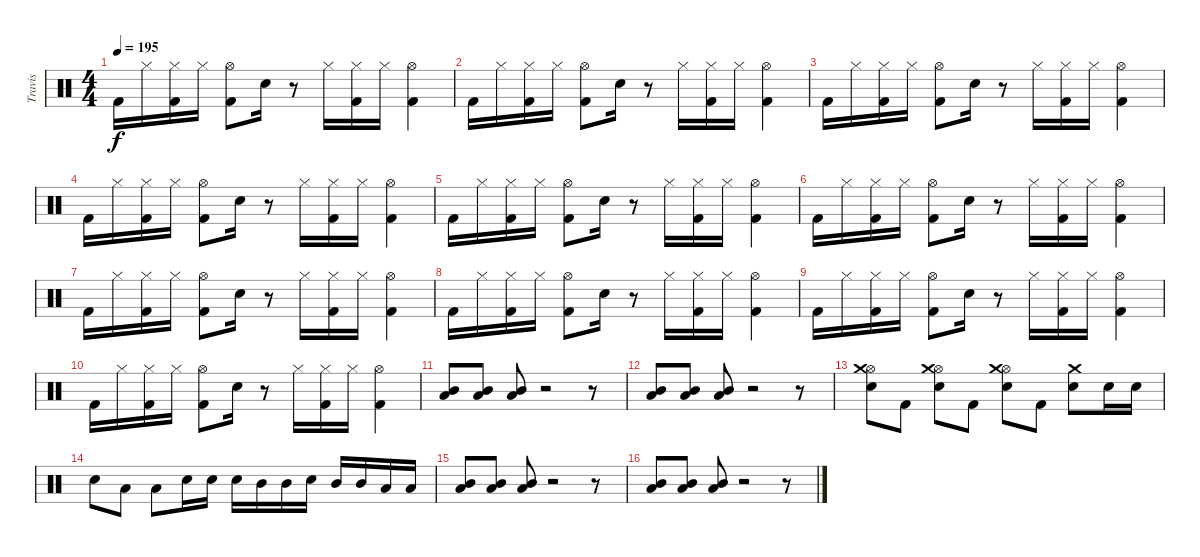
\track ("Travis" "Travis") {instrument percussion}
\staff {score}
\articulation defaults
\ts (4 4)
\tempo 195
\clef neutral
\ks c "Kick (hit) 2".16{dy f} "Hi-Hat (closed)".16
("Kick (hit) 2" "Hi-Hat (closed)").16 "Hi-Hat (closed)".16 ("Kick (hit) 2" "Hi-Hat (open)").8 "Electric Snare (hit)".16 r.8 "Hi-Hat (closed)".16 ("Kick (hit) 2" "Hi-Hat (closed)").16 "Hi-Hat (closed)".16 ("Kick (hit) 2" "Hi-Hat (open)").4 |
"Kick (hit) 2".16 "Hi-Hat (closed)".16 ("Kick (hit) 2" "Hi-Hat (closed)").16 "Hi-Hat (closed)".16 ("Kick (hit) 2" "Hi-Hat (open)").8 "Electric Snare (hit)".16 r.8 "Hi-Hat (closed)".16 ("Kick (hit) 2" "Hi-Hat (closed)").16 "Hi-Hat (closed)".16 ("Kick (hit) 2" "Hi-Hat (open)").4 |
"Kick (hit) 2".16 "Hi-Hat (closed)".16 ("Kick (hit) 2" "Hi-Hat (closed)").16 "Hi-Hat (closed)".16 ("Kick (hit) 2" "Hi-Hat (open)").8 "Electric Snare (hit)".16 r.8 "Hi-Hat (closed)".16 ("Kick (hit) 2" "Hi-Hat (closed)").16 "Hi-Hat (closed)".16 ("Kick (hit) 2" "Hi-Hat (open)").4 |
"Kick (hit) 2".16 "Hi-Hat (closed)".16 ("Kick (hit) 2" "Hi-Hat (closed)").16 "Hi-Hat (closed)".16 ("Kick (hit) 2" "Hi-Hat (open)").8 "Electric Snare (hit)".16 r.8 "Hi-Hat (closed)".16 ("Kick (hit) 2" "Hi-Hat (closed)").16 "Hi-Hat (closed)".16 ("Kick (hit) 2" "Hi-Hat (open)").4 |
"Kick (hit) 2".16 "Hi-Hat (closed)".16 ("Kick (hit) 2" "Hi-Hat (closed)").16 "Hi-Hat (closed)".16 ("Kick (hit) 2" "Hi-Hat (open)").8 "Electric Snare (hit)".16 r.8 "Hi-Hat (closed)".16 ("Kick (hit) 2" "Hi-Hat (closed)").16 "Hi-Hat (closed)".16 ("Kick (hit) 2" "Hi-Hat (open)").4 |
"Kick (hit) 2".16 "Hi-Hat (closed)".16 ("Kick (hit) 2" "Hi-Hat (closed)").16 "Hi-Hat (closed)".16 ("Kick (hit) 2" "Hi-Hat (open)").8 "Electric Snare (hit)".16 r.8 "Hi-Hat (closed)".16 ("Kick (hit) 2" "Hi-Hat (closed)").16 "Hi-Hat (closed)".16 ("Kick (hit) 2" "Hi-Hat (open)").4 |
"Kick (hit) 2".16 "Hi-Hat (closed)".16 ("Kick (hit) 2" "Hi-Hat (closed)").16 "Hi-Hat (closed)".16 ("Kick (hit) 2" "Hi-Hat (open)").8 "Electric Snare (hit)".16 r.8 "Hi-Hat (closed)".16 ("Kick (hit) 2" "Hi-Hat (closed)").16 "Hi-Hat (closed)".16 ("Kick (hit) 2" "Hi-Hat (open)").4 |
"Kick (hit) 2".16 "Hi-Hat (closed)".16 ("Kick (hit) 2" "Hi-Hat (closed)").16 "Hi-Hat (closed)".16 ("Kick (hit) 2" "Hi-Hat (open)").8 "Electric Snare (hit)".16 r.8 "Hi-Hat (closed)".16 ("Kick (hit) 2" "Hi-Hat (closed)").16 "Hi-Hat (closed)".16 ("Kick (hit) 2" "Hi-Hat (open)").4 |
"Kick (hit) 2".16 "Hi-Hat (closed)".16 ("Kick (hit) 2" "Hi-Hat (closed)").16 "Hi-Hat (closed)".16 ("Kick (hit) 2" "Hi-Hat (open)").8 "Electric Snare (hit)".16 r.8 "Hi-Hat (closed)".16 ("Kick (hit) 2" "Hi-Hat (closed)").16 "Hi-Hat (closed)".16 ("Kick (hit) 2" "Hi-Hat (open)").4 |
"Kick (hit) 2".16 "Hi-Hat (closed)".16 ("Kick (hit) 2" "Hi-Hat (closed)").16 "Hi-Hat (closed)".16 ("Kick (hit) 2" "Hi-Hat (open)").8 "Electric Snare (hit)".16 r.8 "Hi-Hat (closed)".16 ("Kick (hit) 2" "Hi-Hat (closed)").16 "Hi-Hat (closed)".16 ("Kick (hit) 2" "Hi-Hat (open)").4 |
("Low Floor Tom (hit)" "Mid Tom (hit)").8 ("Low Floor Tom (hit)" "Mid Tom (hit)").8 ("Low Floor Tom (hit)" "Mid Tom (hit)").8 r.2 r.8 |
("Low Floor Tom (hit)" "Mid Tom (hit)").8 ("Low Floor Tom (hit)" "Mid Tom (hit)").8 ("Low Floor Tom (hit)" "Mid Tom (hit)").8 r.2 r.8 |
("Hi-Hat (open)" "Electric Snare (hit)" "Crash medium (hit)").8 "Kick (hit) 2".8 ("Hi-Hat (open)" "Electric Snare (hit)" "Crash medium (hit)").8 "Kick (hit) 2".8 ("Hi-Hat (open)" "Electric Snare (hit)" "Crash medium (hit)").8 "Kick (hit) 2".8 ("Electric Snare (hit)" "Crash medium (hit)").8 "Electric Snare (hit)".16 "Electric Snare (hit)".16 |
"Electric Snare (hit)".8 "Low Floor Tom (hit)".8 "Low Floor Tom (hit)".8 "Electric Snare (hit)".16 "Electric Snare (hit)".16 "Electric Snare (hit)".16 "Mid Tom (hit)".16 "Mid Tom (hit)".16 "Electric Snare (hit)".16 "Mid Tom (hit)".16 "Mid Tom (hit)".16 "Low Floor Tom (hit)".16 "Low Floor Tom (hit)".16 |
("Low Floor Tom (hit)" "Mid Tom (hit)").8 ("Low Floor Tom (hit)" "Mid Tom (hit)").8 ("Low Floor Tom (hit)" "Mid Tom (hit)").8 r.2 r.8 |
("Low Floor Tom (hit)" "Mid Tom (hit)").8 ("Low Floor Tom (hit)" "Mid Tom (hit)").8 ("Low Floor Tom (hit)" "Mid Tom (hit)").8 r.2 r.8
